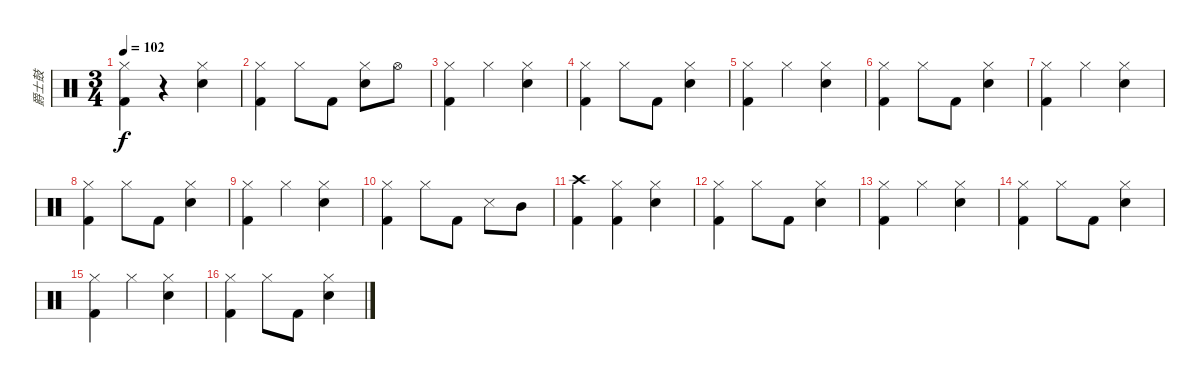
\track ("爵士鼓" "爵士鼓") {instrument percussion}
\staff {score}
\articulation defaults
\ts (3 4)
\tempo 102
\clef neutral
\ks c
("Hi-Hat (closed)" "Kick (hit) 2").4{dy f} r.4 ("Hi-Hat (closed)" "Electric Snare (hit)").4 |
("Hi-Hat (closed)" "Kick (hit) 2").4 "Hi-Hat (closed)".8 "Kick (hit) 2".8 ("Hi-Hat (closed)" "Electric Snare (hit)").8 "Hi-Hat (open)".8 |
("Hi-Hat (closed)" "Kick (hit) 2").4 "Hi-Hat (closed)".4 ("Hi-Hat (closed)" "Electric Snare (hit)").4 |
("Hi-Hat (closed)" "Kick (hit) 2").4 "Hi-Hat (closed)".8 "Kick (hit) 2".8 ("Hi-Hat (closed)" "Electric Snare (hit)").4 |
("Hi-Hat (closed)" "Kick (hit) 2").4 "Hi-Hat (closed)".4 ("Hi-Hat (closed)" "Electric Snare (hit)").4 |
("Hi-Hat (closed)" "Kick (hit) 2").4 "Hi-Hat (closed)".8 "Kick (hit) 2".8 ("Hi-Hat (closed)" "Electric Snare (hit)").4 |
("Hi-Hat (closed)" "Kick (hit) 2").4 "Hi-Hat (closed)".4 ("Hi-Hat (closed)" "Electric Snare (hit)").4 |
("Hi-Hat (closed)" "Kick (hit) 2").4 "Hi-Hat (closed)".8 "Kick (hit) 2".8 ("Hi-Hat (closed)" "Electric Snare (hit)").4 |
("Hi-Hat (closed)" "Kick (hit) 2").4 "Hi-Hat (closed)".4 ("Hi-Hat (closed)" "Electric Snare (hit)").4 |
("Hi-Hat (closed)" "Kick (hit) 2").4 "Hi-Hat (closed)".8 "Kick (hit) 2".8 "Snare (side stick) 3".8 "Mid Tom (hit)".8 |
("Crash high (hit)" "Kick (hit) 2").4 ("Hi-Hat (closed)" "Kick (hit) 2").4 ("Hi-Hat (closed)" "Electric Snare (hit)").4 |
("Hi-Hat (closed)" "Kick (hit) 2").4 "Hi-Hat (closed)".8 "Kick (hit) 2".8 ("Hi-Hat (closed)" "Electric Snare (hit)").4 |
("Hi-Hat (closed)" "Kick (hit) 2").4 "Hi-Hat (closed)".4 ("Hi-Hat (closed)" "Electric Snare (hit)").4 |
("Hi-Hat (closed)" "Kick (hit) 2").4 "Hi-Hat (closed)".8 "Kick (hit) 2".8 ("Hi-Hat (closed)" "Electric Snare (hit)").4 |
("Hi-Hat (closed)" "Kick (hit) 2").4 "Hi-Hat (closed)".4 ("Hi-Hat (closed)" "Electric Snare (hit)").4 |
("Hi-Hat (closed)" "Kick (hit) 2").4 "Hi-Hat (closed)".8 "Kick (hit) 2".8 ("Hi-Hat (closed)" "Electric Snare (hit)").4
